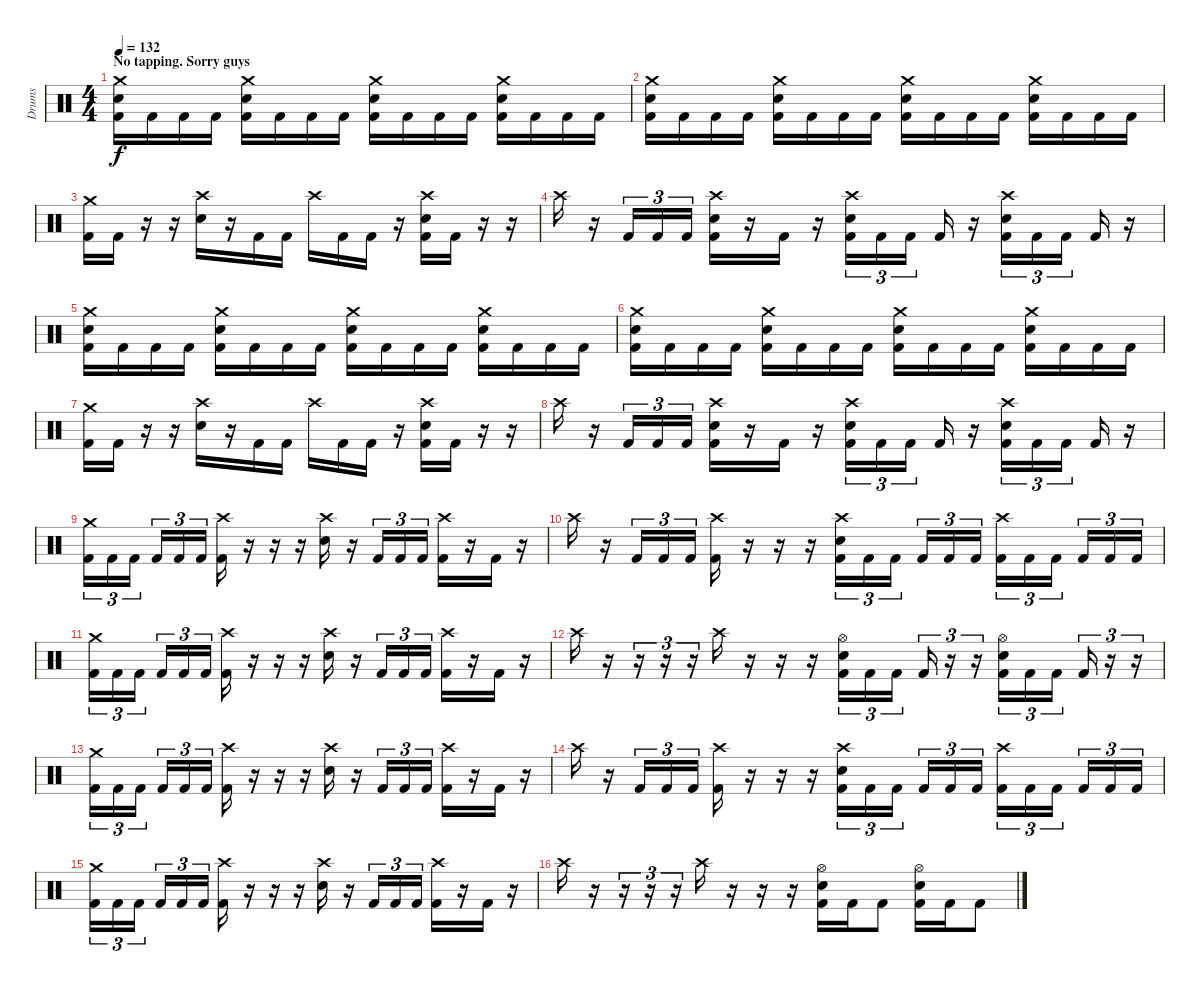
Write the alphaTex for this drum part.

\track ("Drums" "Drums") {instrument percussion}
\staff {score}
\articulation defaults
\ts (4 4)
\section ("" "No tapping. Sorry guys")
\tempo 132
\clef neutral
\ks c
("Crash medium (hit)" "Electric Snare (hit)" "Kick (hit) 2").16{dy f} "Kick (hit) 2".16 "Kick (hit) 2".16 "Kick (hit) 2".16 ("Crash medium (hit)" "Electric Snare (hit)" "Kick (hit) 2").16 "Kick (hit) 2".16 "Kick (hit) 2".16 "Kick (hit) 2".16 ("Crash medium (hit)" "Electric Snare (hit)" "Kick (hit) 2").16 "Kick (hit) 2".16 "Kick (hit) 2".16 "Kick (hit) 2".16 ("Crash medium (hit)" "Electric Snare (hit)" "Kick (hit) 2").16 "Kick (hit) 2".16 "Kick (hit) 2".16 "Kick (hit) 2".16 |
("Crash medium (hit)" "Electric Snare (hit)" "Kick (hit) 2").16 "Kick (hit) 2".16 "Kick (hit) 2".16 "Kick (hit) 2".16 ("Crash medium (hit)" "Electric Snare (hit)" "Kick (hit) 2").16 "Kick (hit) 2".16 "Kick (hit) 2".16 "Kick (hit) 2".16 ("Crash medium (hit)" "Electric Snare (hit)" "Kick (hit) 2").16 "Kick (hit) 2".16 "Kick (hit) 2".16 "Kick (hit) 2".16 ("Crash medium (hit)" "Electric Snare (hit)" "Kick (hit) 2").16 "Kick (hit) 2".16 "Kick (hit) 2".16 "Kick (hit) 2".16 |
("Crash medium (hit)" "Kick (hit) 2").16 "Kick (hit) 2".16 r.16 r.16 ("Crash high (hit)" "Electric Snare (hit)").16 r.16 "Kick (hit) 2".16 "Kick (hit) 2".16 "Crash high (hit)".16 "Kick (hit) 2".16 "Kick (hit) 2".16 r.16 ("Crash high (hit)" "Electric Snare (hit)" "Kick (hit) 2").16 "Kick (hit) 2".16 r.16 r.16 |
"Crash high (hit)".16 r.16 "Kick (hit) 2".16{tu (3 2)} "Kick (hit) 2".16{tu (3 2)} "Kick (hit) 2".16{tu (3 2)} ("Crash high (hit)" "Electric Snare (hit)" "Kick (hit) 2").16 r.16 "Kick (hit) 2".16 r.16 ("Crash high (hit)" "Electric Snare (hit)" "Kick (hit) 2").16{tu (3 2)} "Kick (hit) 2".16{tu (3 2)} "Kick (hit) 2".16{tu (3 2)} "Kick (hit) 2".16 r.16 ("Crash high (hit)" "Electric Snare (hit)" "Kick (hit) 2").16{tu (3 2)} "Kick (hit) 2".16{tu (3 2)} "Kick (hit) 2".16{tu (3 2)} "Kick (hit) 2".16 r.16 |
("Crash medium (hit)" "Electric Snare (hit)" "Kick (hit) 2").16 "Kick (hit) 2".16 "Kick (hit) 2".16 "Kick (hit) 2".16 ("Crash medium (hit)" "Electric Snare (hit)" "Kick (hit) 2").16 "Kick (hit) 2".16 "Kick (hit) 2".16 "Kick (hit) 2".16 ("Crash medium (hit)" "Electric Snare (hit)" "Kick (hit) 2").16 "Kick (hit) 2".16 "Kick (hit) 2".16 "Kick (hit) 2".16 ("Crash medium (hit)" "Electric Snare (hit)" "Kick (hit) 2").16 "Kick (hit) 2".16 "Kick (hit) 2".16 "Kick (hit) 2".16 |
("Crash medium (hit)" "Electric Snare (hit)" "Kick (hit) 2").16 "Kick (hit) 2".16 "Kick (hit) 2".16 "Kick (hit) 2".16 ("Crash medium (hit)" "Electric Snare (hit)" "Kick (hit) 2").16 "Kick (hit) 2".16 "Kick (hit) 2".16 "Kick (hit) 2".16 ("Crash medium (hit)" "Electric Snare (hit)" "Kick (hit) 2").16 "Kick (hit) 2".16 "Kick (hit) 2".16 "Kick (hit) 2".16 ("Crash medium (hit)" "Electric Snare (hit)" "Kick (hit) 2").16 "Kick (hit) 2".16 "Kick (hit) 2".16 "Kick (hit) 2".16 |
("Crash medium (hit)" "Kick (hit) 2").16 "Kick (hit) 2".16 r.16 r.16 ("Crash high (hit)" "Electric Snare (hit)").16 r.16 "Kick (hit) 2".16 "Kick (hit) 2".16 "Crash high (hit)".16 "Kick (hit) 2".16 "Kick (hit) 2".16 r.16 ("Crash high (hit)" "Electric Snare (hit)" "Kick (hit) 2").16 "Kick (hit) 2".16 r.16 r.16 |
"Crash high (hit)".16 r.16 "Kick (hit) 2".16{tu (3 2)} "Kick (hit) 2".16{tu (3 2)} "Kick (hit) 2".16{tu (3 2)} ("Crash high (hit)" "Electric Snare (hit)" "Kick (hit) 2").16 r.16 "Kick (hit) 2".16 r.16 ("Crash high (hit)" "Electric Snare (hit)" "Kick (hit) 2").16{tu (3 2)} "Kick (hit) 2".16{tu (3 2)} "Kick (hit) 2".16{tu (3 2)} "Kick (hit) 2".16 r.16 ("Crash high (hit)" "Electric Snare (hit)" "Kick (hit) 2").16{tu (3 2)} "Kick (hit) 2".16{tu (3 2)} "Kick (hit) 2".16{tu (3 2)} "Kick (hit) 2".16 r.16 |
("Crash medium (hit)" "Kick (hit) 2").16{tu (3 2)} "Kick (hit) 2".16{tu (3 2)} "Kick (hit) 2".16{tu (3 2)} "Kick (hit) 2".16{tu (3 2)} "Kick (hit) 2".16{tu (3 2)} "Kick (hit) 2".16{tu (3 2)} ("Crash high (hit)" "Kick (hit) 2").16 r.16 r.16 r.16 ("Crash high (hit)" "Electric Snare (hit)").16 r.16 "Kick (hit) 2".16{tu (3 2)} "Kick (hit) 2".16{tu (3 2)} "Kick (hit) 2".16{tu (3 2)} ("Crash high (hit)" "Kick (hit) 2").16 r.16 "Kick (hit) 2".16 r.16 |
"Crash high (hit)".16 r.16 "Kick (hit) 2".16{tu (3 2)} "Kick (hit) 2".16{tu (3 2)} "Kick (hit) 2".16{tu (3 2)} ("Crash high (hit)" "Kick (hit) 2").16 r.16 r.16 r.16 ("Crash high (hit)" "Electric Snare (hit)" "Kick (hit) 2").16{tu (3 2)} "Kick (hit) 2".16{tu (3 2)} "Kick (hit) 2".16{tu (3 2)} "Kick (hit) 2".16{tu (3 2)} "Kick (hit) 2".16{tu (3 2)} "Kick (hit) 2".16{tu (3 2)} ("Crash high (hit)" "Kick (hit) 2").16{tu (3 2)} "Kick (hit) 2".16{tu (3 2)} "Kick (hit) 2".16{tu (3 2)} "Kick (hit) 2".16{tu (3 2)} "Kick (hit) 2".16{tu (3 2)} "Kick (hit) 2".16{tu (3 2)} |
("Crash medium (hit)" "Kick (hit) 2").16{tu (3 2)} "Kick (hit) 2".16{tu (3 2)} "Kick (hit) 2".16{tu (3 2)} "Kick (hit) 2".16{tu (3 2)} "Kick (hit) 2".16{tu (3 2)} "Kick (hit) 2".16{tu (3 2)} ("Crash high (hit)" "Kick (hit) 2").16 r.16 r.16 r.16 ("Crash high (hit)" "Electric Snare (hit)").16 r.16 "Kick (hit) 2".16{tu (3 2)} "Kick (hit) 2".16{tu (3 2)} "Kick (hit) 2".16{tu (3 2)} ("Crash high (hit)" "Kick (hit) 2").16 r.16 "Kick (hit) 2".16 r.16 |
"Crash high (hit)".16 r.16 r.16{tu (3 2)} r.16{tu (3 2)} r.16{tu (3 2)} "Crash high (hit)".16 r.16 r.16 r.16 ("Hi-Hat (open)" "Electric Snare (hit)" "Kick (hit) 2").16{tu (3 2)} "Kick (hit) 2".16{tu (3 2)} "Kick (hit) 2".16{tu (3 2)} "Kick (hit) 2".16{tu (3 2)} r.16{tu (3 2)} r.16{tu (3 2)} ("Hi-Hat (open)" "Electric Snare (hit)" "Kick (hit) 2").16{tu (3 2)} "Kick (hit) 2".16{tu (3 2)} "Kick (hit) 2".16{tu (3 2)} "Kick (hit) 2".16{tu (3 2)} r.16{tu (3 2)} r.16{tu (3 2)} |
("Crash medium (hit)" "Kick (hit) 2").16{tu (3 2)} "Kick (hit) 2".16{tu (3 2)} "Kick (hit) 2".16{tu (3 2)} "Kick (hit) 2".16{tu (3 2)} "Kick (hit) 2".16{tu (3 2)} "Kick (hit) 2".16{tu (3 2)} ("Crash high (hit)" "Kick (hit) 2").16 r.16 r.16 r.16 ("Crash high (hit)" "Electric Snare (hit)").16 r.16 "Kick (hit) 2".16{tu (3 2)} "Kick (hit) 2".16{tu (3 2)} "Kick (hit) 2".16{tu (3 2)} ("Crash high (hit)" "Kick (hit) 2").16 r.16 "Kick (hit) 2".16 r.16 |
"Crash high (hit)".16 r.16 "Kick (hit) 2".16{tu (3 2)} "Kick (hit) 2".16{tu (3 2)} "Kick (hit) 2".16{tu (3 2)} ("Crash high (hit)" "Kick (hit) 2").16 r.16 r.16 r.16 ("Crash high (hit)" "Electric Snare (hit)" "Kick (hit) 2").16{tu (3 2)} "Kick (hit) 2".16{tu (3 2)} "Kick (hit) 2".16{tu (3 2)} "Kick (hit) 2".16{tu (3 2)} "Kick (hit) 2".16{tu (3 2)} "Kick (hit) 2".16{tu (3 2)} ("Crash high (hit)" "Kick (hit) 2").16{tu (3 2)} "Kick (hit) 2".16{tu (3 2)} "Kick (hit) 2".16{tu (3 2)} "Kick (hit) 2".16{tu (3 2)} "Kick (hit) 2".16{tu (3 2)} "Kick (hit) 2".16{tu (3 2)} |
("Crash medium (hit)" "Kick (hit) 2").16{tu (3 2)} "Kick (hit) 2".16{tu (3 2)} "Kick (hit) 2".16{tu (3 2)} "Kick (hit) 2".16{tu (3 2)} "Kick (hit) 2".16{tu (3 2)} "Kick (hit) 2".16{tu (3 2)} ("Crash high (hit)" "Kick (hit) 2").16 r.16 r.16 r.16 ("Crash high (hit)" "Electric Snare (hit)").16 r.16 "Kick (hit) 2".16{tu (3 2)} "Kick (hit) 2".16{tu (3 2)} "Kick (hit) 2".16{tu (3 2)} ("Crash high (hit)" "Kick (hit) 2").16 r.16 "Kick (hit) 2".16 r.16 |
"Crash high (hit)".16 r.16 r.16{tu (3 2)} r.16{tu (3 2)} r.16{tu (3 2)} "Crash high (hit)".16 r.16 r.16 r.16 ("Hi-Hat (open)" "Electric Snare (hit)" "Kick (hit) 2").16 "Kick (hit) 2".16 "Kick (hit) 2".8 ("Hi-Hat (open)" "Electric Snare (hit)" "Kick (hit) 2").16 "Kick (hit) 2".16 "Kick (hit) 2".8
